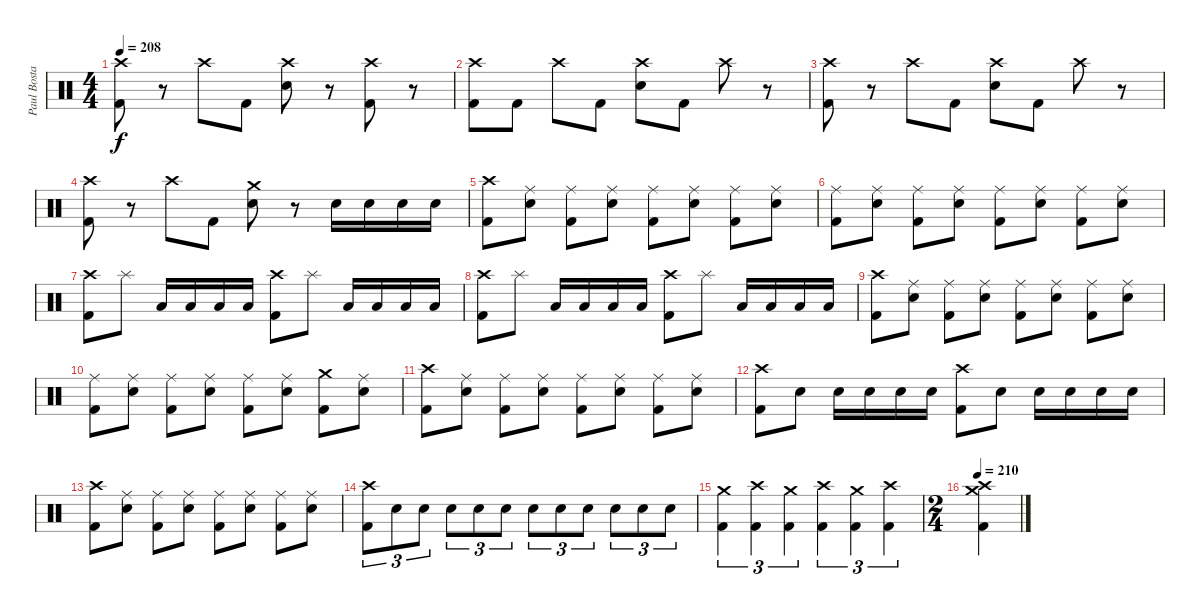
\track ("Paul Bostaph" "Paul Bosta") {instrument percussion}
\staff {score}
\articulation defaults
\ts (4 4)
\tempo 208
\clef neutral
\ks c
("Crash high (hit)" "Kick (hit) 2").8{dy f} r.8 "Crash high (hit)".8 "Kick (hit) 2".8 ("Crash high (hit)" "Electric Snare (hit)").8 r.8 ("Crash high (hit)" "Kick (hit) 2").8 r.8 |
("Crash high (hit)" "Kick (hit) 2").8 "Kick (hit) 2".8 "Crash high (hit)".8 "Kick (hit) 2".8 ("Crash high (hit)" "Electric Snare (hit)").8 "Kick (hit) 2".8 "Crash high (hit)".8 r.8 |
("Crash high (hit)" "Kick (hit) 2").8 r.8 "Crash high (hit)".8 "Kick (hit) 2".8 ("Crash high (hit)" "Electric Snare (hit)").8 "Kick (hit) 2".8 "Crash high (hit)".8 r.8 |
("Crash high (hit)" "Kick (hit) 2").8 r.8 "Crash high (hit)".8 "Kick (hit) 2".8 ("Crash medium (hit)" "Electric Snare (hit)").8 r.8 "Electric Snare (hit)".16 "Electric Snare (hit)".16 "Electric Snare (hit)".16 "Electric Snare (hit)".16 |
("Crash high (hit)" "Kick (hit) 2").8 ("Ride (middle)" "Electric Snare (hit)").8 ("Ride (middle)" "Kick (hit) 2").8 ("Ride (middle)" "Electric Snare (hit)").8 ("Ride (middle)" "Kick (hit) 2").8 ("Ride (middle)" "Electric Snare (hit)").8 ("Ride (middle)" "Kick (hit) 2").8 ("Ride (middle)" "Electric Snare (hit)").8 |
("Ride (middle)" "Kick (hit) 2").8 ("Ride (middle)" "Electric Snare (hit)").8 ("Ride (middle)" "Kick (hit) 2").8 ("Ride (middle)" "Electric Snare (hit)").8 ("Ride (middle)" "Kick (hit) 2").8 ("Ride (middle)" "Electric Snare (hit)").8 ("Ride (middle)" "Kick (hit) 2").8 ("Ride (middle)" "Electric Snare (hit)").8 |
("Crash high (hit)" "Kick (hit) 2").8 "Splash (hit)".8 "Low Tom (hit)".16 "Low Tom (hit)".16 "Low Tom (hit)".16 "Low Tom (hit)".16 ("Crash high (hit)" "Kick (hit) 2").8 "Splash (hit)".8 "Low Tom (hit)".16 "Low Tom (hit)".16 "Low Tom (hit)".16 "Low Tom (hit)".16 |
("Crash high (hit)" "Kick (hit) 2").8 "Splash (hit)".8 "Low Tom (hit)".16 "Low Tom (hit)".16 "Low Tom (hit)".16 "Low Tom (hit)".16 ("Crash high (hit)" "Kick (hit) 2").8 "Splash (hit)".8 "Low Tom (hit)".16 "Low Tom (hit)".16 "Low Tom (hit)".16 "Low Tom (hit)".16 |
("Crash high (hit)" "Kick (hit) 2").8 ("Ride (middle)" "Electric Snare (hit)").8 ("Ride (middle)" "Kick (hit) 2").8 ("Ride (middle)" "Electric Snare (hit)").8 ("Ride (middle)" "Kick (hit) 2").8 ("Ride (middle)" "Electric Snare (hit)").8 ("Ride (middle)" "Kick (hit) 2").8 ("Ride (middle)" "Electric Snare (hit)").8 |
("Ride (middle)" "Kick (hit) 2").8 ("Ride (middle)" "Electric Snare (hit)").8 ("Ride (middle)" "Kick (hit) 2").8 ("Ride (middle)" "Electric Snare (hit)").8 ("Ride (middle)" "Kick (hit) 2").8 ("Ride (middle)" "Electric Snare (hit)").8 ("Crash medium (hit)" "Kick (hit) 2").8 ("Ride (middle)" "Electric Snare (hit)").8 |
("Crash high (hit)" "Kick (hit) 2").8 ("Ride (middle)" "Electric Snare (hit)").8 ("Ride (middle)" "Kick (hit) 2").8 ("Ride (middle)" "Electric Snare (hit)").8 ("Ride (middle)" "Kick (hit) 2").8 ("Ride (middle)" "Electric Snare (hit)").8 ("Ride (middle)" "Kick (hit) 2").8 ("Ride (middle)" "Electric Snare (hit)").8 |
("Crash high (hit)" "Kick (hit) 2").8 "Electric Snare (hit)".8 "Electric Snare (hit)".16 "Electric Snare (hit)".16 "Electric Snare (hit)".16 "Electric Snare (hit)".16 ("Crash high (hit)" "Kick (hit) 2").8 "Electric Snare (hit)".8 "Electric Snare (hit)".16 "Electric Snare (hit)".16 "Electric Snare (hit)".16 "Electric Snare (hit)".16 |
("Crash high (hit)" "Kick (hit) 2").8 ("Ride (middle)" "Electric Snare (hit)").8 ("Ride (middle)" "Kick (hit) 2").8 ("Ride (middle)" "Electric Snare (hit)").8 ("Ride (middle)" "Kick (hit) 2").8 ("Ride (middle)" "Electric Snare (hit)").8 ("Ride (middle)" "Kick (hit) 2").8 ("Ride (middle)" "Electric Snare (hit)").8 |
("Crash high (hit)" "Kick (hit) 2").8{tu (3 2)} "Electric Snare (hit)".8{tu (3 2)} "Electric Snare (hit)".8{tu (3 2)} "Electric Snare (hit)".8{tu (3 2)} "Electric Snare (hit)".8{tu (3 2)} "Electric Snare (hit)".8{tu (3 2)} "Electric Snare (hit)".8{tu (3 2)} "Electric Snare (hit)".8{tu (3 2)} "Electric Snare (hit)".8{tu (3 2)} "Electric Snare (hit)".8{tu (3 2)} "Electric Snare (hit)".8{tu (3 2)} "Electric Snare (hit)".8{tu (3 2)} |
("Crash medium (hit)" "Kick (hit) 2").4{tu (3 2)} ("Crash high (hit)" "Kick (hit) 2").4{tu (3 2)} ("Crash medium (hit)" "Kick (hit) 2").4{tu (3 2)} ("Crash high (hit)" "Kick (hit) 2").4{tu (3 2)} ("Crash medium (hit)" "Kick (hit) 2").4{tu (3 2)} ("Crash high (hit)" "Kick (hit) 2").4{tu (3 2)} |
\ts (2 4)
\tempo 210
("Crash medium (hit)" "Crash high (hit)" "Kick (hit) 2").4
